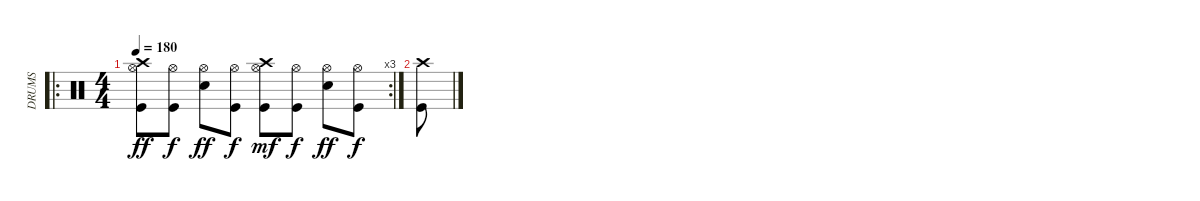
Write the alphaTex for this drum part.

\track ("DRUMS" "DRUMS") {instrument percussion}
\staff {score}
\articulation defaults
\ro
\rc 3
\ts (4 4)
\tempo 180
\clef neutral
\ks c
("Crash high (hit)" "Hi-Hat (open)" "Kick (hit)").8{dy ff} ("Hi-Hat (open)" "Kick (hit)").8{dy f} ("Hi-Hat (open)" "Electric Snare (hit)").8{dy ff} ("Hi-Hat (open)" "Kick (hit)").8{dy f} ("Hi-Hat (open)" "Crash high (hit)" "Kick (hit)").8{dy mf} ("Hi-Hat (open)" "Kick (hit)").8{dy f} ("Hi-Hat (open)" "Electric Snare (hit)").8{dy ff} ("Hi-Hat (open)" "Kick (hit)").8{dy f} |
("Crash high (hit)" "Kick (hit)").8
